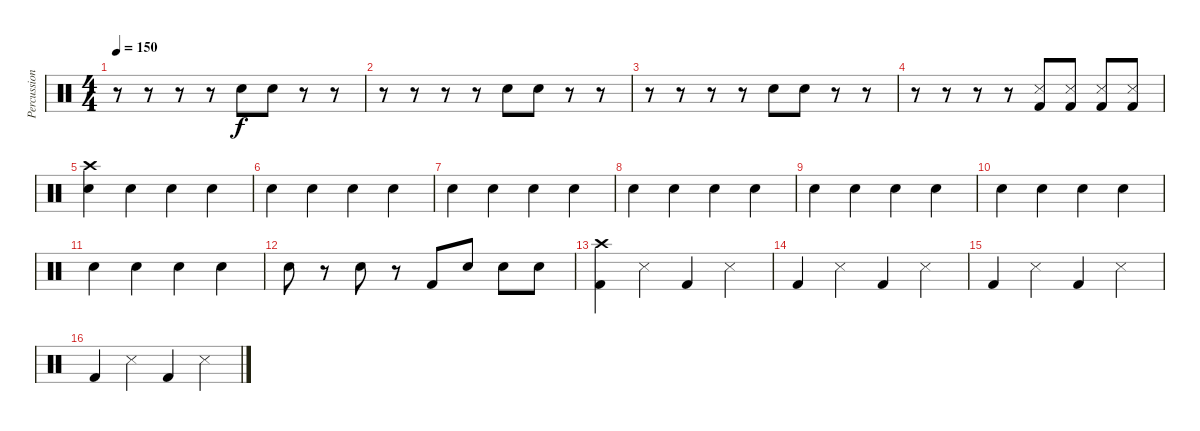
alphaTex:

\track ("Percussion" "Percussion") {instrument percussion}
\staff {score}
\articulation defaults
\ts (4 4)
\tempo 150
\clef neutral
\ks c
r.8{dy f} r.8 r.8 r.8 "Electric Snare (hit)".8 "Electric Snare (hit)".8 r.8 r.8 |
r.8 r.8 r.8 r.8 "Electric Snare (hit)".8 "Electric Snare (hit)".8 r.8 r.8 |
r.8 r.8 r.8 r.8 "Electric Snare (hit)".8 "Electric Snare (hit)".8 r.8 r.8 |
r.8 r.8 r.8 r.8 ("Snare (side stick) 3" "Kick (hit) 2").8 ("Snare (side stick) 3" "Kick (hit) 2").8 ("Snare (side stick) 3" "Kick (hit) 2").8 ("Snare (side stick) 3" "Kick (hit) 2").8 |
("Electric Snare (hit)" "Crash high (hit)").4 "Electric Snare (hit)".4 "Electric Snare (hit)".4 "Electric Snare (hit)".4 |
"Electric Snare (hit)".4 "Electric Snare (hit)".4 "Electric Snare (hit)".4 "Electric Snare (hit)".4 |
"Electric Snare (hit)".4 "Electric Snare (hit)".4 "Electric Snare (hit)".4 "Electric Snare (hit)".4 |
"Electric Snare (hit)".4 "Electric Snare (hit)".4 "Electric Snare (hit)".4 "Electric Snare (hit)".4 |
"Electric Snare (hit)".4 "Electric Snare (hit)".4 "Electric Snare (hit)".4 "Electric Snare (hit)".4 |
"Electric Snare (hit)".4 "Electric Snare (hit)".4 "Electric Snare (hit)".4 "Electric Snare (hit)".4 |
"Electric Snare (hit)".4 "Electric Snare (hit)".4 "Electric Snare (hit)".4 "Electric Snare (hit)".4 |
"Electric Snare (hit)".8 r.8 "Electric Snare (hit)".8 r.8 "Kick (hit) 2".8 "Electric Snare (hit)".8 "Electric Snare (hit)".8 "Electric Snare (hit)".8 |
("Crash high (hit)" "Kick (hit) 2").4 "Snare (side stick) 3".4 "Kick (hit) 2".4 "Snare (side stick) 3".4 |
"Kick (hit) 2".4 "Snare (side stick) 3".4 "Kick (hit) 2".4 "Snare (side stick) 3".4 |
"Kick (hit) 2".4 "Snare (side stick) 3".4 "Kick (hit) 2".4 "Snare (side stick) 3".4 |
"Kick (hit) 2".4 "Snare (side stick) 3".4 "Kick (hit) 2".4 "Snare (side stick) 3".4
